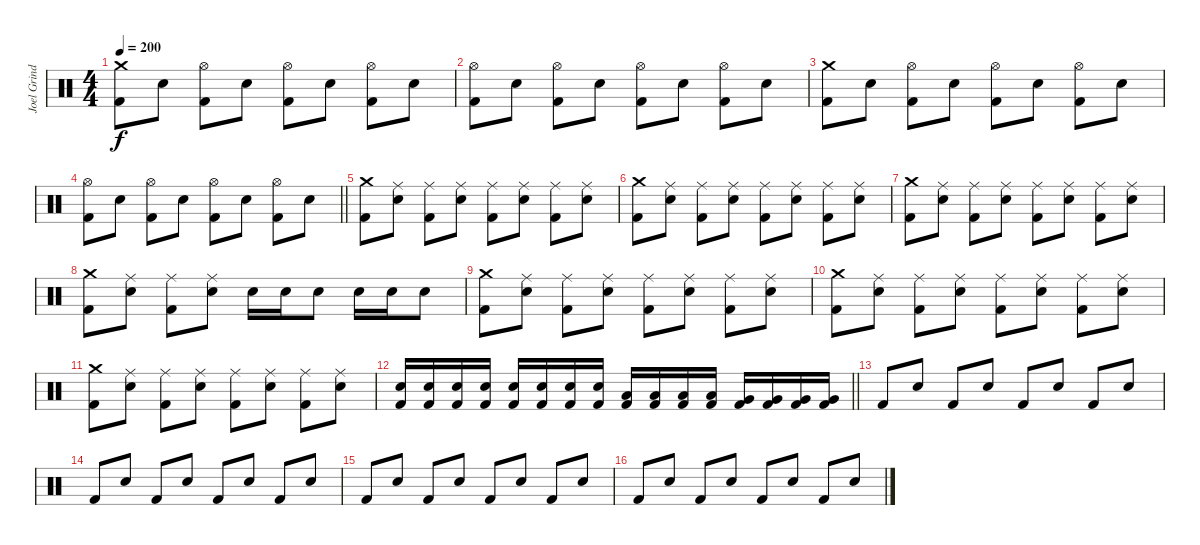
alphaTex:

\track ("Joel Grind (drums)" "Joel Grind") {instrument percussion}
\staff {score}
\articulation defaults
\ts (4 4)
\tempo 200
\clef neutral
\ks c
("Crash medium (hit)" "Kick (hit) 2").8{dy f} "Snare (hit) 2".8 ("Hi-Hat (open)" "Kick (hit) 2").8 "Snare (hit) 2".8 ("Hi-Hat (open)" "Kick (hit) 2").8 "Snare (hit) 2".8 ("Hi-Hat (open)" "Kick (hit) 2").8 "Snare (hit) 2".8 |
("Hi-Hat (open)" "Kick (hit) 2").8 "Snare (hit) 2".8 ("Hi-Hat (open)" "Kick (hit) 2").8 "Snare (hit) 2".8 ("Hi-Hat (open)" "Kick (hit) 2").8 "Snare (hit) 2".8 ("Hi-Hat (open)" "Kick (hit) 2").8 "Snare (hit) 2".8 |
("Crash medium (hit)" "Kick (hit) 2").8 "Snare (hit) 2".8 ("Hi-Hat (open)" "Kick (hit) 2").8 "Snare (hit) 2".8 ("Hi-Hat (open)" "Kick (hit) 2").8 "Snare (hit) 2".8 ("Hi-Hat (open)" "Kick (hit) 2").8 "Snare (hit) 2".8 |
\barLineRight lightlight
("Hi-Hat (open)" "Kick (hit) 2").8 "Snare (hit) 2".8 ("Hi-Hat (open)" "Kick (hit) 2").8 "Snare (hit) 2".8 ("Hi-Hat (open)" "Kick (hit) 2").8 "Snare (hit) 2".8 ("Hi-Hat (open)" "Kick (hit) 2").8 "Snare (hit) 2".8 |
("Crash medium (hit)" "Kick (hit) 2").8 ("Ride (middle)" "Snare (hit) 2").8 ("Ride (middle)" "Kick (hit) 2").8 ("Ride (middle)" "Snare (hit) 2").8 ("Ride (middle)" "Kick (hit) 2").8 ("Ride (middle)" "Snare (hit) 2").8 ("Ride (middle)" "Kick (hit) 2").8 ("Ride (middle)" "Snare (hit) 2").8 |
("Crash medium (hit)" "Kick (hit) 2").8 ("Ride (middle)" "Snare (hit) 2").8 ("Ride (middle)" "Kick (hit) 2").8 ("Ride (middle)" "Snare (hit) 2").8 ("Ride (middle)" "Kick (hit) 2").8 ("Ride (middle)" "Snare (hit) 2").8 ("Ride (middle)" "Kick (hit) 2").8 ("Ride (middle)" "Snare (hit) 2").8 |
("Crash medium (hit)" "Kick (hit) 2").8 ("Ride (middle)" "Snare (hit) 2").8 ("Ride (middle)" "Kick (hit) 2").8 ("Ride (middle)" "Snare (hit) 2").8 ("Ride (middle)" "Kick (hit) 2").8 ("Ride (middle)" "Snare (hit) 2").8 ("Ride (middle)" "Kick (hit) 2").8 ("Ride (middle)" "Snare (hit) 2").8 |
("Crash medium (hit)" "Kick (hit) 2").8 ("Ride (middle)" "Snare (hit) 2").8 ("Ride (middle)" "Kick (hit) 2").8 ("Ride (middle)" "Snare (hit) 2").8 "Snare (hit) 2".16 "Snare (hit) 2".16 "Snare (hit) 2".8 "Snare (hit) 2".16 "Snare (hit) 2".16 "Snare (hit) 2".8 |
("Crash medium (hit)" "Kick (hit) 2").8 ("Ride (middle)" "Snare (hit) 2").8 ("Ride (middle)" "Kick (hit) 2").8 ("Ride (middle)" "Snare (hit) 2").8 ("Ride (middle)" "Kick (hit) 2").8 ("Ride (middle)" "Snare (hit) 2").8 ("Ride (middle)" "Kick (hit) 2").8 ("Ride (middle)" "Snare (hit) 2").8 |
("Crash medium (hit)" "Kick (hit) 2").8 ("Ride (middle)" "Snare (hit) 2").8 ("Ride (middle)" "Kick (hit) 2").8 ("Ride (middle)" "Snare (hit) 2").8 ("Ride (middle)" "Kick (hit) 2").8 ("Ride (middle)" "Snare (hit) 2").8 ("Ride (middle)" "Kick (hit) 2").8 ("Ride (middle)" "Snare (hit) 2").8 |
("Crash medium (hit)" "Kick (hit) 2").8 ("Ride (middle)" "Snare (hit) 2").8 ("Ride (middle)" "Kick (hit) 2").8 ("Ride (middle)" "Snare (hit) 2").8 ("Ride (middle)" "Kick (hit) 2").8 ("Ride (middle)" "Snare (hit) 2").8 ("Ride (middle)" "Kick (hit) 2").8 ("Ride (middle)" "Snare (hit) 2").8 |
\barLineRight lightlight
("Snare (hit) 2" "Kick (hit) 2").16 ("Snare (hit) 2" "Kick (hit) 2").16 ("Snare (hit) 2" "Kick (hit) 2").16 ("Snare (hit) 2" "Kick (hit) 2").16 ("Snare (hit) 2" "Kick (hit) 2").16 ("Snare (hit) 2" "Kick (hit) 2").16 ("Snare (hit) 2" "Kick (hit) 2").16 ("Snare (hit) 2" "Kick (hit) 2").16 ("Low Tom (hit)" "Kick (hit) 2").16 ("Low Tom (hit)" "Kick (hit) 2").16 ("Low Tom (hit)" "Kick (hit) 2").16 ("Low Tom (hit)" "Kick (hit) 2").16 ("Very Low Tom (hit)" "Kick (hit) 2").16 ("Very Low Tom (hit)" "Kick (hit) 2").16 ("Very Low Tom (hit)" "Kick (hit) 2").16 ("Very Low Tom (hit)" "Kick (hit) 2").16 |
"Kick (hit) 2".8 "Snare (hit) 2".8 "Kick (hit) 2".8 "Snare (hit) 2".8 "Kick (hit) 2".8 "Snare (hit) 2".8 "Kick (hit) 2".8 "Snare (hit) 2".8 |
"Kick (hit) 2".8 "Snare (hit) 2".8 "Kick (hit) 2".8 "Snare (hit) 2".8 "Kick (hit) 2".8 "Snare (hit) 2".8 "Kick (hit) 2".8 "Snare (hit) 2".8 |
"Kick (hit) 2".8 "Snare (hit) 2".8 "Kick (hit) 2".8 "Snare (hit) 2".8 "Kick (hit) 2".8 "Snare (hit) 2".8 "Kick (hit) 2".8 "Snare (hit) 2".8 |
"Kick (hit) 2".8 "Snare (hit) 2".8 "Kick (hit) 2".8 "Snare (hit) 2".8 "Kick (hit) 2".8 "Snare (hit) 2".8 "Kick (hit) 2".8 "Snare (hit) 2".8
